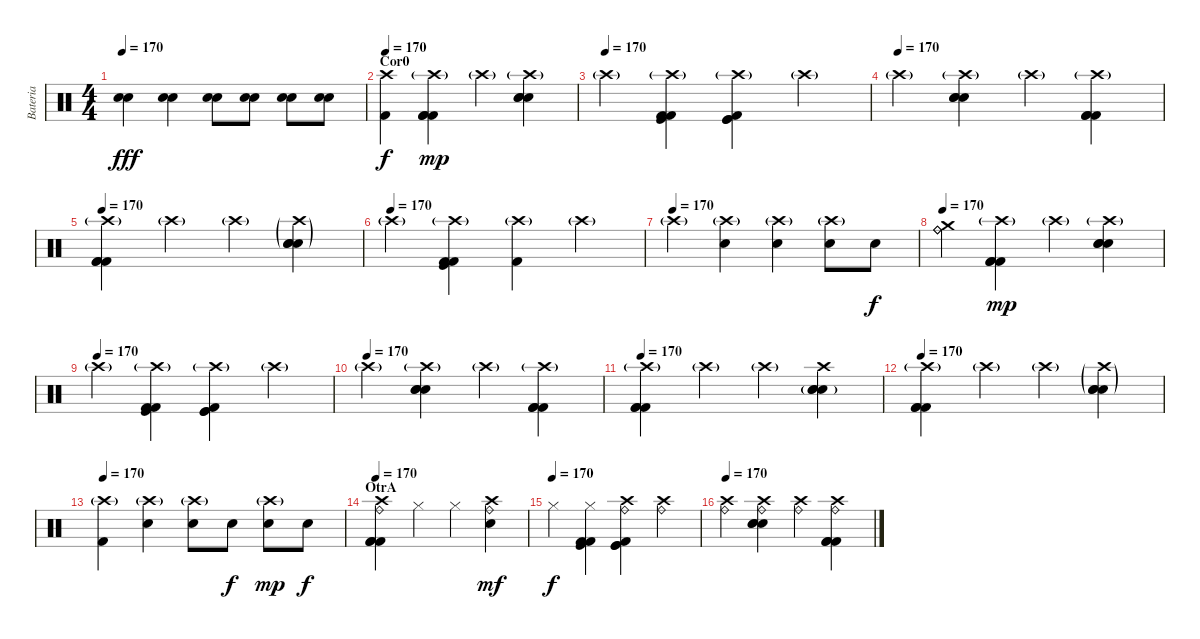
\track ("Bateria" "Bateria") {instrument percussion}
\staff {score}
\articulation defaults
\ts (4 4)
\tempo 170
\clef neutral
\ks c
("Electric Snare (hit)" "Snare (hit) 2").4{dy fff} ("Electric Snare (hit)" "Snare (hit) 2").4 ("Electric Snare (hit)" "Snare (hit) 2").8 ("Electric Snare (hit)" "Snare (hit) 2").8 ("Electric Snare (hit)" "Snare (hit) 2").8 ("Electric Snare (hit)" "Snare (hit) 2").8 |
\section ("" "Cor0")
\tempo 170
("Crash high (hit)" "Kick (hit) 2").4{dy f} ("Crash high (hit)"{g} "Kick (hit) 2" "Kick (hit) 2" "Kick (hit) 2").4{dy mp} "Crash high (hit)"{g}.4 ("Crash high (hit)"{g} "Electric Snare (hit)" "Electric Snare (hit)" "Snare (hit) 2").4 |
\tempo (170)
"Crash high (hit)"{g}.4 ("Crash high (hit)"{g} "Kick (hit) 2" "Kick (hit) 2" "Kick (hit)").4 ("Crash high (hit)"{g} "Kick (hit)" "Kick (hit)" "Kick (hit) 2").4 "Crash high (hit)"{g}.4 |
\tempo (170)
"Crash high (hit)"{g}.4 ("Crash high (hit)"{g} "Electric Snare (hit)" "Electric Snare (hit)" "Snare (hit) 2").4 "Crash high (hit)"{g}.4 ("Crash high (hit)"{g} "Kick (hit) 2" "Kick (hit) 2" "Kick (hit) 2").4 |
\tempo 170
("Crash high (hit)"{g} "Kick (hit) 2" "Kick (hit) 2" "Kick (hit) 2").4 "Crash high (hit)"{g}.4 "Crash high (hit)"{g}.4 ("Electric Snare (hit)"{g} "Electric Snare (hit)" "Snare (hit) 2" "Crash high (hit)"{g}).4 |
\tempo (170)
"Crash high (hit)"{g}.4 ("Crash high (hit)"{g} "Kick (hit)" "Kick (hit) 2" "Kick (hit) 2").4 ("Kick (hit) 2" "Crash high (hit)"{g}).4 "Crash high (hit)"{g}.4 |
\tempo (170)
"Crash high (hit)"{g}.4 ("Crash high (hit)"{g} "Electric Snare (hit)").4 ("Crash high (hit)"{g} "Electric Snare (hit)").4 ("Crash high (hit)"{g} "Electric Snare (hit)").8 "Electric Snare (hit)".8{dy f} |
\tempo 170
("Crash medium (hit)" "Ride (bell)" "Ride (bell)").4 ("Crash high (hit)"{g} "Kick (hit) 2" "Kick (hit) 2" "Kick (hit) 2").4{dy mp} "Crash high (hit)"{g}.4 ("Crash high (hit)"{g} "Electric Snare (hit)" "Electric Snare (hit)" "Snare (hit) 2").4 |
\tempo (170)
"Crash high (hit)"{g}.4 ("Crash high (hit)"{g} "Kick (hit) 2" "Kick (hit) 2" "Kick (hit)").4 ("Crash high (hit)"{g} "Kick (hit)" "Kick (hit)" "Kick (hit) 2").4 "Crash high (hit)"{g}.4 |
\tempo (170)
"Crash high (hit)"{g}.4 ("Crash high (hit)"{g} "Electric Snare (hit)" "Electric Snare (hit)" "Snare (hit) 2").4 "Crash high (hit)"{g}.4 ("Crash high (hit)"{g} "Kick (hit) 2" "Kick (hit) 2" "Kick (hit) 2").4 |
\tempo 170
("Crash high (hit)"{g} "Kick (hit) 2" "Kick (hit) 2" "Kick (hit) 2").4 "Crash high (hit)"{g}.4 "Crash high (hit)"{g}.4 ("Electric Snare (hit)"{g} "Electric Snare (hit)" "Snare (hit) 2" "Crash high (hit)").4 |
\tempo 170
("Crash high (hit)"{g} "Kick (hit) 2" "Kick (hit) 2" "Kick (hit) 2").4 "Crash high (hit)"{g}.4 "Crash high (hit)"{g}.4 ("Electric Snare (hit)"{g} "Electric Snare (hit)" "Snare (hit) 2" "Crash high (hit)"{g}).4 |
\tempo 170
("Kick (hit) 2" "Crash high (hit)"{g}).4 ("Electric Snare (hit)" "Crash high (hit)"{g}).4 ("Electric Snare (hit)" "Crash high (hit)"{g}).8 "Electric Snare (hit)".8{dy f} ("Electric Snare (hit)" "Crash high (hit)"{g}).8{dy mp} "Electric Snare (hit)".8{dy f} |
\section ("" "OtrA")
\tempo 170
("Crash high (hit)" "Ride (bell)" "Kick (hit) 2" "Kick (hit) 2" "Kick (hit) 2").4 "Hi-Hat (closed)".4 "Hi-Hat (closed)".4 ("Crash high (hit)" "Snare (hit) 2" "Ride (bell)").4{dy mf} |
\tempo (170)
"Hi-Hat (closed)".4{dy f} ("Hi-Hat (closed)" "Kick (hit) 2" "Kick (hit) 2" "Kick (hit)").4 ("Crash high (hit)" "Ride (bell)" "Kick (hit)" "Kick (hit)" "Kick (hit) 2").4 ("Crash high (hit)" "Ride (bell)").4 |
\tempo 170
("Crash high (hit)" "Ride (bell)").4 ("Crash high (hit)" "Electric Snare (hit)" "Electric Snare (hit)" "Snare (hit) 2" "Ride (bell)").4 ("Crash high (hit)" "Ride (bell)").4 ("Crash high (hit)" "Kick (hit) 2" "Kick (hit) 2" "Kick (hit) 2" "Ride (bell)").4
